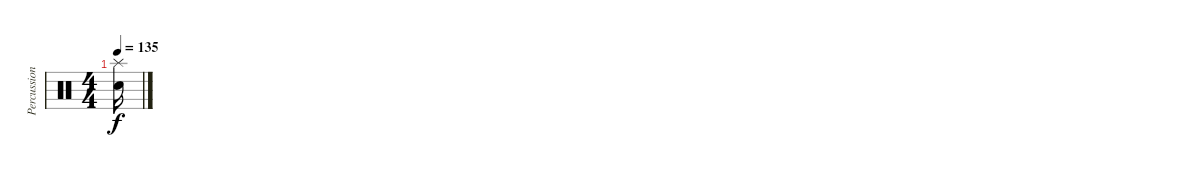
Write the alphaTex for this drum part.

\track ("Percussion" "Percussion") {instrument percussion}
\staff {score}
\articulation defaults
\ts (4 4)
\tempo 135
\clef neutral
\ks c
("Splash (hit)" "Snare (hit) 2").16{dy f}
